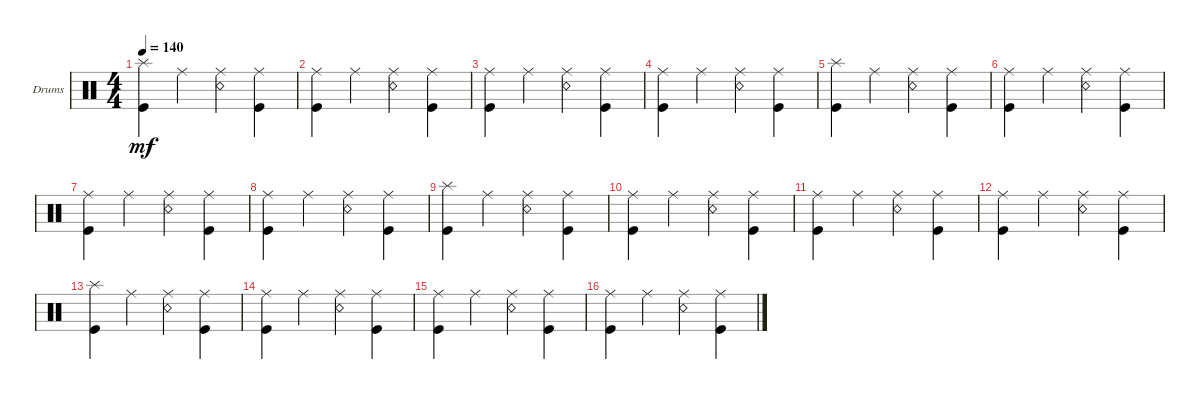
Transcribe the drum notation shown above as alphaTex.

\defaultSystemsLayout 4
\bracketExtendMode groupsimilarinstruments
\firstSystemTrackNameOrientation horizontal
\otherSystemsTrackNameOrientation horizontal
\track ("Drumkit" "Drums") {instrument percussion}
\staff {score}
\articulation defaults
\ts (4 4)
\tempo 140
\clef neutral
\scale
0.333333
\ks c
("Kick (hit)" "Splash (hit)").4{dy mf} "Ride (middle)".4 ("Snare (rim shot)" "Ride (middle)").4 ("Ride (middle)" "Kick (hit)").4 |
\scale
0.333333 ("Kick (hit)" "Ride (middle)").4 "Ride (middle)".4 ("Snare (rim shot)" "Ride (middle)").4 ("Ride (middle)" "Kick (hit)").4 |
\scale
0.333333 ("Kick (hit)" "Ride (middle)").4 "Ride (middle)".4 ("Snare (rim shot)" "Ride (middle)").4 ("Ride (middle)" "Kick (hit)").4 |
\scale
0.333333 ("Kick (hit)" "Ride (middle)").4 "Ride (middle)".4 ("Snare (rim shot)" "Ride (middle)").4 ("Ride (middle)" "Kick (hit)").4 |
\scale
0.333333 ("Kick (hit)" "Splash (hit)").4 "Ride (middle)".4 ("Snare (rim shot)" "Ride (middle)").4 ("Ride (middle)" "Kick (hit)").4 |
\scale
0.333333 ("Kick (hit)" "Ride (middle)").4 "Ride (middle)".4 ("Snare (rim shot)" "Ride (middle)").4 ("Ride (middle)" "Kick (hit)").4 |
\scale
0.333333 ("Kick (hit)" "Ride (middle)").4 "Ride (middle)".4 ("Snare (rim shot)" "Ride (middle)").4 ("Ride (middle)" "Kick (hit)").4 |
\scale
0.333333 ("Kick (hit)" "Ride (middle)").4 "Ride (middle)".4 ("Snare (rim shot)" "Ride (middle)").4 ("Ride (middle)" "Kick (hit)").4 |
\scale
0.333333 ("Kick (hit)" "Splash (hit)").4 "Ride (middle)".4 ("Snare (rim shot)" "Ride (middle)").4 ("Ride (middle)" "Kick (hit)").4 |
\scale
0.333333 ("Kick (hit)" "Ride (middle)").4 "Ride (middle)".4 ("Snare (rim shot)" "Ride (middle)").4 ("Ride (middle)" "Kick (hit)").4 |
\scale
0.333333 ("Kick (hit)" "Ride (middle)").4 "Ride (middle)".4 ("Snare (rim shot)" "Ride (middle)").4 ("Ride (middle)" "Kick (hit)").4 |
\scale
0.333333 ("Kick (hit)" "Ride (middle)").4 "Ride (middle)".4 ("Snare (rim shot)" "Ride (middle)").4 ("Ride (middle)" "Kick (hit)").4 |
("Kick (hit)" "Splash (hit)").4 "Ride (middle)".4 ("Snare (rim shot)" "Ride (middle)").4 ("Ride (middle)" "Kick (hit)").4 |
("Kick (hit)" "Ride (middle)").4 "Ride (middle)".4 ("Snare (rim shot)" "Ride (middle)").4 ("Ride (middle)" "Kick (hit)").4 |
("Kick (hit)" "Ride (middle)").4 "Ride (middle)".4 ("Snare (rim shot)" "Ride (middle)").4 ("Ride (middle)" "Kick (hit)").4 |
("Kick (hit)" "Ride (middle)").4 "Ride (middle)".4 ("Snare (rim shot)" "Ride (middle)").4 ("Ride (middle)" "Kick (hit)").4
